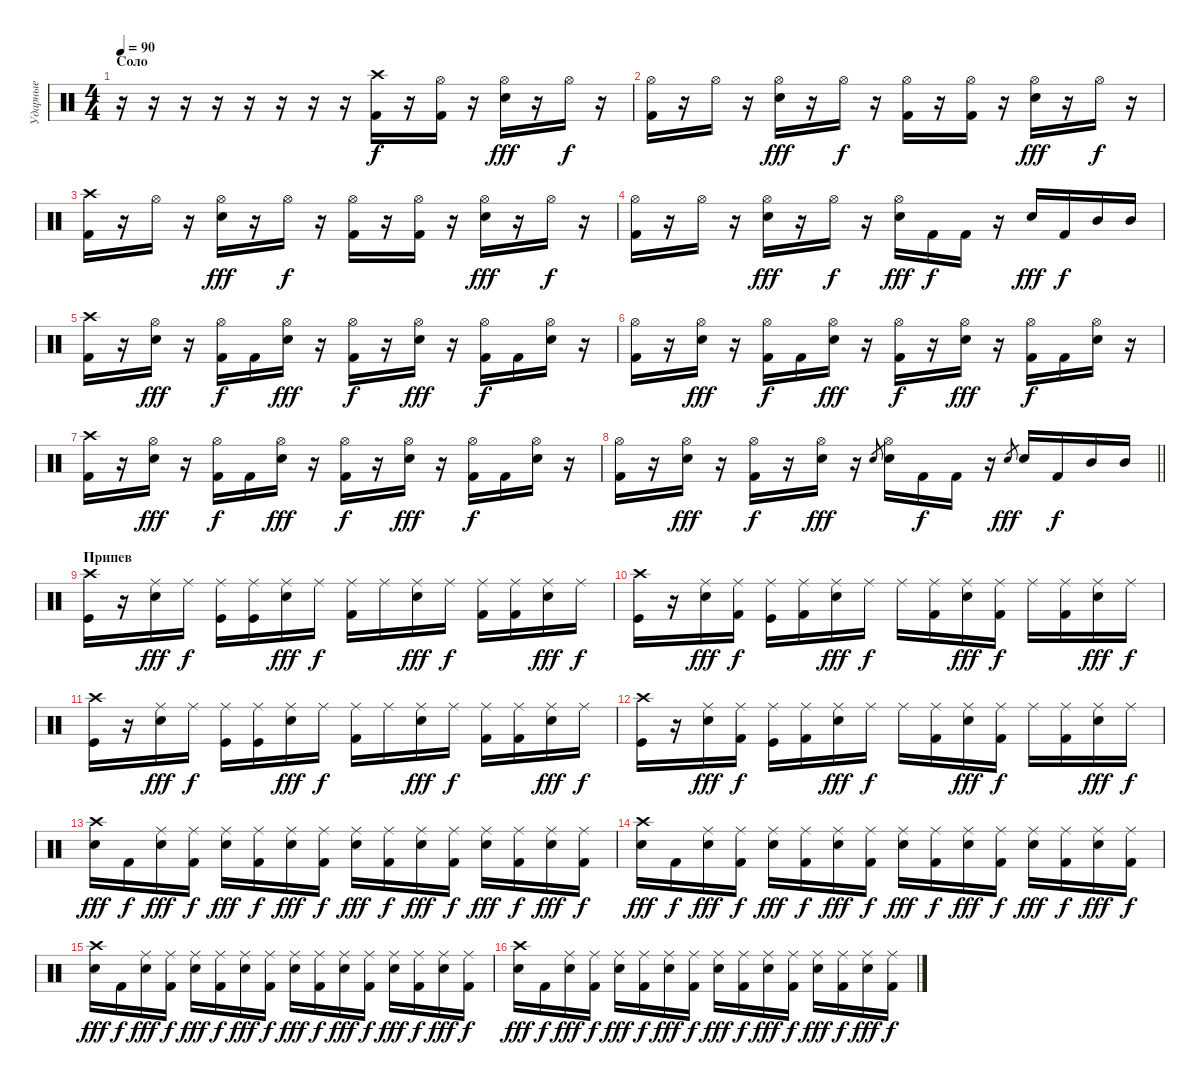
\track ("Ударные" "Ударные") {instrument percussion}
\staff {score}
\articulation defaults
\ts (4 4)
\section ("" "Соло")
\tempo 90
\clef neutral
\ks c
r.16{dy fff} r.16 r.16 r.16 r.16 r.16 r.16 r.16 ("Crash high (hit)" "Kick (hit) 2").16{dy f} r.16 ("Hi-Hat (open)" "Kick (hit) 2").16 r.16 ("Hi-Hat (open)" "Snare (hit) 2").16{dy fff} r.16 "Hi-Hat (open)".16{dy f} r.16 |
("Hi-Hat (open)" "Kick (hit) 2").16 r.16 "Hi-Hat (open)".16 r.16 ("Hi-Hat (open)" "Snare (hit) 2").16{dy fff} r.16 "Hi-Hat (open)".16{dy f} r.16 ("Hi-Hat (open)" "Kick (hit) 2").16 r.16 ("Hi-Hat (open)" "Kick (hit) 2").16 r.16 ("Hi-Hat (open)" "Snare (hit) 2").16{dy fff} r.16 "Hi-Hat (open)".16{dy f} r.16 |
("Crash high (hit)" "Kick (hit) 2").16 r.16 "Hi-Hat (open)".16 r.16 ("Hi-Hat (open)" "Snare (hit) 2").16{dy fff} r.16 "Hi-Hat (open)".16{dy f} r.16 ("Hi-Hat (open)" "Kick (hit) 2").16 r.16 ("Hi-Hat (open)" "Kick (hit) 2").16 r.16 ("Hi-Hat (open)" "Snare (hit) 2").16{dy fff} r.16 "Hi-Hat (open)".16{dy f} r.16 |
("Hi-Hat (open)" "Kick (hit) 2").16 r.16 "Hi-Hat (open)".16 r.16 ("Hi-Hat (open)" "Snare (hit) 2").16{dy fff} r.16 "Hi-Hat (open)".16{dy f} r.16 ("Hi-Hat (open)" "Snare (hit) 2").16{dy fff} "Kick (hit) 2".16{dy f} "Kick (hit) 2".16 r.16 "Snare (hit) 2".16{dy fff} "Kick (hit) 2".16{dy f} "Mid Tom (hit)".16 "Mid Tom (hit)".16 |
("Crash high (hit)" "Kick (hit) 2").16 r.16 ("Hi-Hat (open)" "Snare (hit) 2").16{dy fff} r.16 ("Hi-Hat (open)" "Kick (hit) 2").16{dy f} "Kick (hit) 2".16 ("Hi-Hat (open)" "Snare (hit) 2").16{dy fff} r.16 ("Hi-Hat (open)" "Kick (hit) 2").16{dy f} r.16 ("Hi-Hat (open)" "Snare (hit) 2").16{dy fff} r.16 ("Hi-Hat (open)" "Kick (hit) 2").16{dy f} "Kick (hit) 2".16 ("Hi-Hat (open)" "Snare (hit) 2").16 r.16 |
("Hi-Hat (open)" "Kick (hit) 2").16 r.16 ("Hi-Hat (open)" "Snare (hit) 2").16{dy fff} r.16 ("Hi-Hat (open)" "Kick (hit) 2").16{dy f} "Kick (hit) 2".16 ("Hi-Hat (open)" "Snare (hit) 2").16{dy fff} r.16 ("Hi-Hat (open)" "Kick (hit) 2").16{dy f} r.16 ("Hi-Hat (open)" "Snare (hit) 2").16{dy fff} r.16 ("Hi-Hat (open)" "Kick (hit) 2").16{dy f} "Kick (hit) 2".16 ("Hi-Hat (open)" "Snare (hit) 2").16 r.16 |
("Crash high (hit)" "Kick (hit) 2").16 r.16 ("Hi-Hat (open)" "Snare (hit) 2").16{dy fff} r.16 ("Hi-Hat (open)" "Kick (hit) 2").16{dy f} "Kick (hit) 2".16 ("Hi-Hat (open)" "Snare (hit) 2").16{dy fff} r.16 ("Hi-Hat (open)" "Kick (hit) 2").16{dy f} r.16 ("Hi-Hat (open)" "Snare (hit) 2").16{dy fff} r.16 ("Hi-Hat (open)" "Kick (hit) 2").16{dy f} "Kick (hit) 2".16 ("Hi-Hat (open)" "Snare (hit) 2").16 r.16 |
\barLineRight lightlight
("Hi-Hat (open)" "Kick (hit) 2").16 r.16 ("Hi-Hat (open)" "Snare (hit) 2").16{dy fff} r.16 ("Hi-Hat (open)" "Kick (hit) 2").16{dy f} r.16 ("Hi-Hat (open)" "Snare (hit) 2").16{dy fff} r.16 "Snare (hit) 2".8{gr} ("Hi-Hat (open)" "Snare (hit) 2").16 "Kick (hit) 2".16{dy f} "Kick (hit) 2".16 r.16 "Snare (hit) 2".8{gr dy fff} "Snare (hit) 2".16 "Kick (hit) 2".16{dy f} "Mid Tom (hit)".16 "Mid Tom (hit)".16 |
\section ("" "Припев")
("Crash high (hit)" "Kick (hit)").16 r.16 ("Ride (middle)" "Snare (hit) 2").16{dy fff} "Ride (middle)".16{dy f} ("Ride (middle)" "Kick (hit)").16 ("Ride (middle)" "Kick (hit)").16 ("Ride (middle)" "Snare (hit) 2").16{dy fff} "Ride (middle)".16{dy f} ("Ride (middle)" "Kick (hit) 2").16 "Ride (middle)".16 ("Ride (middle)" "Snare (hit) 2").16{dy fff} "Ride (middle)".16{dy f} ("Ride (middle)" "Kick (hit) 2").16 ("Ride (middle)" "Kick (hit) 2").16 ("Ride (middle)" "Snare (hit) 2").16{dy fff} "Ride (middle)".16{dy f} |
("Crash high (hit)" "Kick (hit)").16 r.16 ("Ride (middle)" "Snare (hit) 2").16{dy fff} ("Ride (middle)" "Kick (hit) 2").16{dy f} ("Ride (middle)" "Kick (hit)").16 ("Ride (middle)" "Kick (hit) 2").16 ("Ride (middle)" "Snare (hit) 2").16{dy fff} "Ride (middle)".16{dy f} "Ride (middle)".16 ("Ride (middle)" "Kick (hit) 2").16 ("Ride (middle)" "Snare (hit) 2").16{dy fff} ("Ride (middle)" "Kick (hit) 2").16{dy f} "Ride (middle)".16 ("Ride (middle)" "Kick (hit) 2").16 ("Ride (middle)" "Snare (hit) 2").16{dy fff} "Ride (middle)".16{dy f} |
("Crash high (hit)" "Kick (hit)").16 r.16 ("Ride (middle)" "Snare (hit) 2").16{dy fff} "Ride (middle)".16{dy f} ("Ride (middle)" "Kick (hit)").16 ("Ride (middle)" "Kick (hit)").16 ("Ride (middle)" "Snare (hit) 2").16{dy fff} "Ride (middle)".16{dy f} ("Ride (middle)" "Kick (hit) 2").16 "Ride (middle)".16 ("Ride (middle)" "Snare (hit) 2").16{dy fff} "Ride (middle)".16{dy f} ("Ride (middle)" "Kick (hit) 2").16 ("Ride (middle)" "Kick (hit) 2").16 ("Ride (middle)" "Snare (hit) 2").16{dy fff} "Ride (middle)".16{dy f} |
("Crash high (hit)" "Kick (hit)").16 r.16 ("Ride (middle)" "Snare (hit) 2").16{dy fff} ("Ride (middle)" "Kick (hit) 2").16{dy f} ("Ride (middle)" "Kick (hit)").16 ("Ride (middle)" "Kick (hit) 2").16 ("Ride (middle)" "Snare (hit) 2").16{dy fff} "Ride (middle)".16{dy f} "Ride (middle)".16 ("Ride (middle)" "Kick (hit) 2").16 ("Ride (middle)" "Snare (hit) 2").16{dy fff} ("Ride (middle)" "Kick (hit) 2").16{dy f} "Ride (middle)".16 ("Ride (middle)" "Kick (hit) 2").16 ("Ride (middle)" "Snare (hit) 2").16{dy fff} "Ride (middle)".16{dy f} |
("Crash high (hit)" "Snare (hit) 2").16{dy fff} "Kick (hit) 2".16{dy f} ("Ride (middle)" "Snare (hit) 2").16{dy fff} ("Ride (middle)" "Kick (hit) 2").16{dy f} ("Ride (middle)" "Snare (hit) 2").16{dy fff} ("Ride (middle)" "Kick (hit) 2").16{dy f} ("Ride (middle)" "Snare (hit) 2").16{dy fff} ("Ride (middle)" "Kick (hit) 2").16{dy f} ("Ride (middle)" "Snare (hit) 2").16{dy fff} ("Ride (middle)" "Kick (hit) 2").16{dy f} ("Ride (middle)" "Snare (hit) 2").16{dy fff} ("Ride (middle)" "Kick (hit) 2").16{dy f} ("Ride (middle)" "Snare (hit) 2").16{dy fff} ("Ride (middle)" "Kick (hit) 2").16{dy f} ("Ride (middle)" "Snare (hit) 2").16{dy fff} ("Ride (middle)" "Kick (hit) 2").16{dy f} |
("Crash high (hit)" "Snare (hit) 2").16{dy fff} "Kick (hit) 2".16{dy f} ("Ride (middle)" "Snare (hit) 2").16{dy fff} ("Ride (middle)" "Kick (hit) 2").16{dy f} ("Ride (middle)" "Snare (hit) 2").16{dy fff} ("Ride (middle)" "Kick (hit) 2").16{dy f} ("Ride (middle)" "Snare (hit) 2").16{dy fff} ("Ride (middle)" "Kick (hit) 2").16{dy f} ("Ride (middle)" "Snare (hit) 2").16{dy fff} ("Ride (middle)" "Kick (hit) 2").16{dy f} ("Ride (middle)" "Snare (hit) 2").16{dy fff} ("Ride (middle)" "Kick (hit) 2").16{dy f} ("Ride (middle)" "Snare (hit) 2").16{dy fff} ("Ride (middle)" "Kick (hit) 2").16{dy f} ("Ride (middle)" "Snare (hit) 2").16{dy fff} ("Ride (middle)" "Kick (hit) 2").16{dy f} |
("Crash high (hit)" "Snare (hit) 2").16{dy fff} "Kick (hit) 2".16{dy f} ("Ride (middle)" "Snare (hit) 2").16{dy fff} ("Ride (middle)" "Kick (hit) 2").16{dy f} ("Ride (middle)" "Snare (hit) 2").16{dy fff} ("Ride (middle)" "Kick (hit) 2").16{dy f} ("Ride (middle)" "Snare (hit) 2").16{dy fff} ("Ride (middle)" "Kick (hit) 2").16{dy f} ("Ride (middle)" "Snare (hit) 2").16{dy fff} ("Ride (middle)" "Kick (hit) 2").16{dy f} ("Ride (middle)" "Snare (hit) 2").16{dy fff} ("Ride (middle)" "Kick (hit) 2").16{dy f} ("Ride (middle)" "Snare (hit) 2").16{dy fff} ("Ride (middle)" "Kick (hit) 2").16{dy f} ("Ride (middle)" "Snare (hit) 2").16{dy fff} ("Ride (middle)" "Kick (hit) 2").16{dy f} |
("Crash high (hit)" "Snare (hit) 2").16{dy fff} "Kick (hit) 2".16{dy f} ("Ride (middle)" "Snare (hit) 2").16{dy fff} ("Ride (middle)" "Kick (hit) 2").16{dy f} ("Ride (middle)" "Snare (hit) 2").16{dy fff} ("Ride (middle)" "Kick (hit) 2").16{dy f} ("Ride (middle)" "Snare (hit) 2").16{dy fff} ("Ride (middle)" "Kick (hit) 2").16{dy f} ("Ride (middle)" "Snare (hit) 2").16{dy fff} ("Ride (middle)" "Kick (hit) 2").16{dy f} ("Ride (middle)" "Snare (hit) 2").16{dy fff} ("Ride (middle)" "Kick (hit) 2").16{dy f} ("Ride (middle)" "Snare (hit) 2").16{dy fff} ("Ride (middle)" "Kick (hit) 2").16{dy f} ("Ride (middle)" "Snare (hit) 2").16{dy fff} ("Ride (middle)" "Kick (hit) 2").16{dy f}
